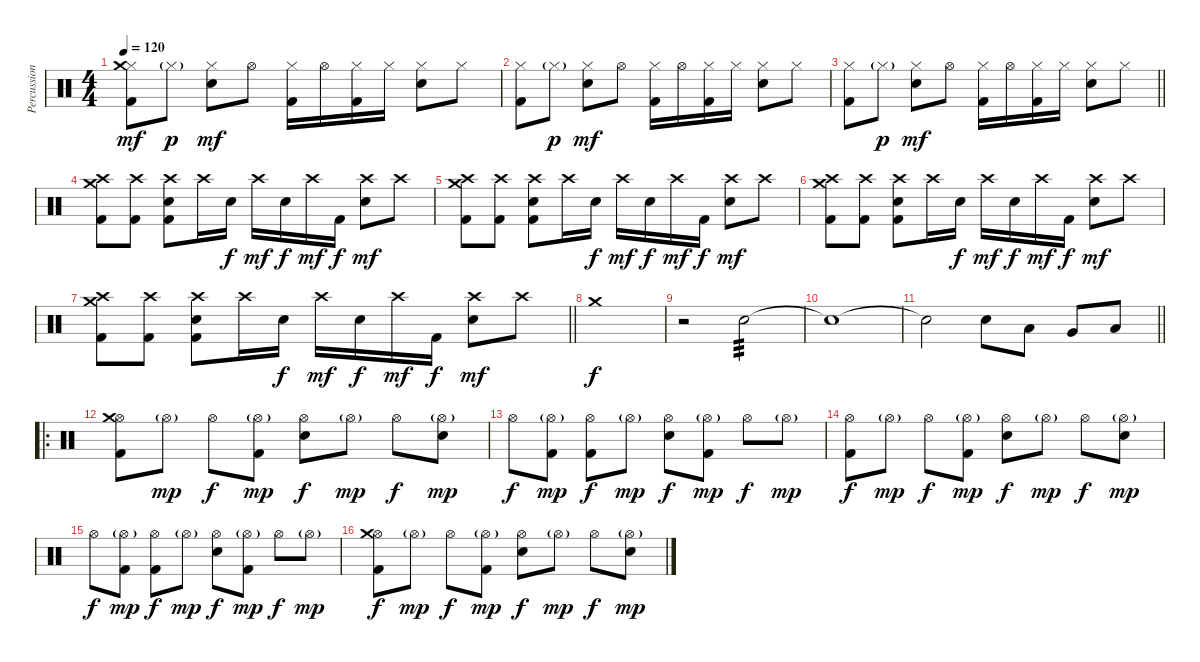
\track ("Percussion" "Percussion") {instrument percussion}
\staff {score}
\articulation defaults
\ts (4 4)
\tempo 120
\clef neutral
\ks c
("Hi-Hat (closed)" "Kick (hit) 2" "Crash medium (hit)").8{dy mf} "Hi-Hat (closed)"{g}.8{dy p} ("Hi-Hat (closed)" "Electric Snare (hit)").8{dy mf} "Hi-Hat (open)".8 ("Hi-Hat (closed)" "Kick (hit) 2").16 "Hi-Hat (open)".16 ("Hi-Hat (closed)" "Kick (hit) 2").16 "Hi-Hat (closed)".16 ("Hi-Hat (closed)" "Electric Snare (hit)").8 "Hi-Hat (closed)".8 |
("Hi-Hat (closed)" "Kick (hit) 2").8 "Hi-Hat (closed)"{g}.8{dy p} ("Hi-Hat (closed)" "Electric Snare (hit)").8{dy mf} "Hi-Hat (open)".8 ("Hi-Hat (closed)" "Kick (hit) 2").16 "Hi-Hat (open)".16 ("Hi-Hat (closed)" "Kick (hit) 2").16 "Hi-Hat (closed)".16 ("Hi-Hat (closed)" "Electric Snare (hit)").8 "Hi-Hat (closed)".8 |
\barLineRight lightlight
("Hi-Hat (closed)" "Kick (hit) 2").8 "Hi-Hat (closed)"{g}.8{dy p} ("Hi-Hat (closed)" "Electric Snare (hit)").8{dy mf} "Hi-Hat (open)".8 ("Hi-Hat (closed)" "Kick (hit) 2").16 "Hi-Hat (open)".16 ("Hi-Hat (closed)" "Kick (hit) 2").16 "Hi-Hat (closed)".16 ("Hi-Hat (closed)" "Electric Snare (hit)").8 "Hi-Hat (closed)".8 |
("Crash high (hit)" "Kick (hit) 2" "Crash medium (hit)").8 ("Crash high (hit)" "Kick (hit) 2").8 ("Crash high (hit)" "Kick (hit) 2" "Electric Snare (hit)").8 "Crash high (hit)".16 "Electric Snare (hit)".16{dy f} "Crash high (hit)".16{dy mf} "Electric Snare (hit)".16{dy f} "Crash high (hit)".16{dy mf} "Kick (hit) 2".16{dy f} ("Crash high (hit)" "Electric Snare (hit)").8{dy mf} "Crash high (hit)".8 |
("Crash high (hit)" "Kick (hit) 2" "Crash medium (hit)").8 ("Crash high (hit)" "Kick (hit) 2").8 ("Crash high (hit)" "Kick (hit) 2" "Electric Snare (hit)").8 "Crash high (hit)".16 "Electric Snare (hit)".16{dy f} "Crash high (hit)".16{dy mf} "Electric Snare (hit)".16{dy f} "Crash high (hit)".16{dy mf} "Kick (hit) 2".16{dy f} ("Crash high (hit)" "Electric Snare (hit)").8{dy mf} "Crash high (hit)".8 |
("Crash high (hit)" "Kick (hit) 2" "Crash medium (hit)").8 ("Crash high (hit)" "Kick (hit) 2").8 ("Crash high (hit)" "Kick (hit) 2" "Electric Snare (hit)").8 "Crash high (hit)".16 "Electric Snare (hit)".16{dy f} "Crash high (hit)".16{dy mf} "Electric Snare (hit)".16{dy f} "Crash high (hit)".16{dy mf} "Kick (hit) 2".16{dy f} ("Crash high (hit)" "Electric Snare (hit)").8{dy mf} "Crash high (hit)".8 |
\barLineRight lightlight
("Crash high (hit)" "Kick (hit) 2" "Crash medium (hit)").8 ("Crash high (hit)" "Kick (hit) 2").8 ("Crash high (hit)" "Kick (hit) 2" "Electric Snare (hit)").8 "Crash high (hit)".16 "Electric Snare (hit)".16{dy f} "Crash high (hit)".16{dy mf} "Electric Snare (hit)".16{dy f} "Crash high (hit)".16{dy mf} "Kick (hit) 2".16{dy f} ("Crash high (hit)" "Electric Snare (hit)").8{dy mf} "Crash high (hit)".8 |
"Crash medium (hit)".1{dy f} |
r.2 "Electric Snare (hit)".2{tp 3} |
"Snare (hit)"{t}.1 |
\barLineRight lightlight "Snare (hit)"{t}.2 "Electric Snare (hit)".8 "Low Tom (hit)".8 "Very Low Tom (hit)".8 "Low Floor Tom (hit)".8
|
\ro
("Hi-Hat (open)" "Kick (hit) 2" "Crash medium (hit)").8 "Hi-Hat (open)"{g}.8{dy mp} "Hi-Hat (open)".8{dy f} ("Hi-Hat (open)"{g} "Kick (hit) 2").8{dy mp} ("Hi-Hat (open)" "Electric Snare (hit)").8{dy f} "Hi-Hat (open)"{g}.8{dy mp} "Hi-Hat (open)".8{dy f} ("Hi-Hat (open)"{g} "Electric Snare (hit)").8{dy mp} |
"Hi-Hat (open)".8{dy f} ("Hi-Hat (open)"{g} "Kick (hit) 2").8{dy mp} ("Hi-Hat (open)" "Kick (hit) 2").8{dy f} "Hi-Hat (open)"{g}.8{dy mp} ("Hi-Hat (open)" "Electric Snare (hit)").8{dy f} ("Hi-Hat (open)"{g} "Kick (hit) 2").8{dy mp} "Hi-Hat (open)".8{dy f} "Hi-Hat (open)"{g}.8{dy mp} |
("Hi-Hat (open)" "Kick (hit) 2").8{dy f} "Hi-Hat (open)"{g}.8{dy mp} "Hi-Hat (open)".8{dy f} ("Hi-Hat (open)"{g} "Kick (hit) 2").8{dy mp} ("Hi-Hat (open)" "Electric Snare (hit)").8{dy f} "Hi-Hat (open)"{g}.8{dy mp} "Hi-Hat (open)".8{dy f} ("Hi-Hat (open)"{g} "Electric Snare (hit)").8{dy mp} |
"Hi-Hat (open)".8{dy f} ("Hi-Hat (open)"{g} "Kick (hit) 2").8{dy mp} ("Hi-Hat (open)" "Kick (hit) 2").8{dy f} "Hi-Hat (open)"{g}.8{dy mp} ("Hi-Hat (open)" "Electric Snare (hit)").8{dy f} ("Hi-Hat (open)"{g} "Kick (hit) 2").8{dy mp} "Hi-Hat (open)".8{dy f} "Hi-Hat (open)"{g}.8{dy mp} |
("Hi-Hat (open)" "Kick (hit) 2" "Crash medium (hit)").8{dy f} "Hi-Hat (open)"{g}.8{dy mp} "Hi-Hat (open)".8{dy f} ("Hi-Hat (open)"{g} "Kick (hit) 2").8{dy mp} ("Hi-Hat (open)" "Electric Snare (hit)").8{dy f} "Hi-Hat (open)"{g}.8{dy mp} "Hi-Hat (open)".8{dy f} ("Hi-Hat (open)"{g} "Electric Snare (hit)").8{dy mp}
